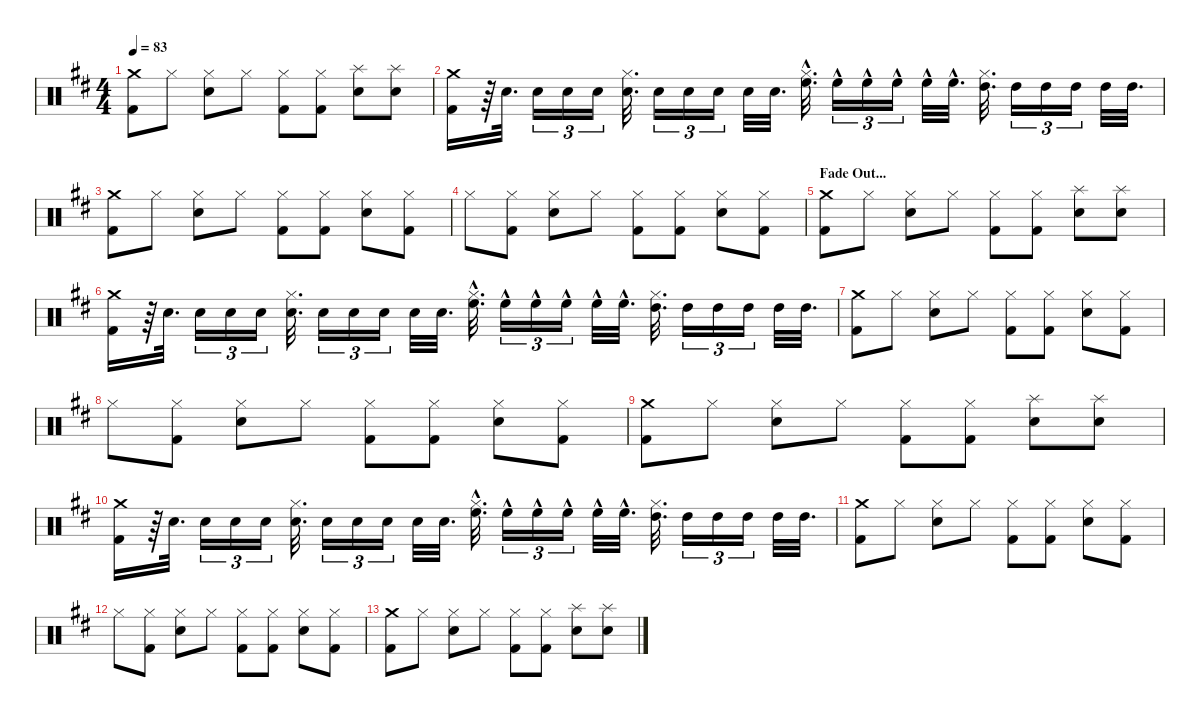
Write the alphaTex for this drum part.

\defaultSystemsLayout 4
\hideDynamics
\bracketExtendMode nobrackets
\singleTrackTrackNamePolicy hidden
\multiTrackTrackNamePolicy hidden
\otherSystemsTrackNameOrientation horizontal
\track ("Drumkit" "Drums") {defaultSystemsLayout 4 instrument percussion}
\staff {score}
\articulation defaults
\ts (4 4)
\tempo 83
\clef neutral
\ks d
("Kick (hit) 2"{acc forcenatural} "Crash medium (hit)"{acc forcenatural}).8{dy f beam Down} "Hi-Hat (closed)"{acc forcenatural}.8{beam Down} ("Snare (hit) 2"{acc forcenatural} "Hi-Hat (closed)"{acc forcenatural}).8{beam Down} "Hi-Hat (closed)"{acc forcenatural}.8{beam Down} ("Kick (hit) 2"{acc forcenatural} "Hi-Hat (closed)"{acc forcenatural}).8{beam Down} ("Kick (hit) 2"{acc forcenatural} "Hi-Hat (closed)"{acc forcenatural}).8{beam Down} ("Snare (hit) 2"{acc forcenatural} "Splash (hit)"{acc forcenatural}).8{beam Down} ("Snare (hit) 2"{acc forcenatural} "Splash (hit)"{acc forcenatural}).8{beam Down} |
("Kick (hit) 2"{acc forcenatural} "Crash medium (hit)"{acc forcenatural}).16{beam Down} r.64{beam Down} "Snare (hit) 2"{acc forcenatural}.32{d beam Down} "Snare (hit) 2"{acc forcenatural}.16{tu (3 2) beam Down} "Snare (hit) 2"{acc forcenatural}.16{tu (3 2) beam Down} "Snare (hit) 2"{acc forcenatural}.16{tu (3 2) beam Down} ("Snare (hit) 2"{acc forcenatural} "Hi-Hat (closed)"{acc forcenatural}).32{d beam Down} "Snare (hit) 2"{acc forcenatural}.16{tu (3 2) beam Down} "Snare (hit) 2"{acc forcenatural}.16{tu (3 2) beam Down} "Snare (hit) 2"{acc forcenatural}.16{tu (3 2) beam Down} "Snare (hit) 2"{acc forcenatural}.32{beam Down} "Snare (hit) 2"{acc forcenatural}.32{d beam Down} ("High Floor Tom (hit)"{hac acc forcenatural} "Hi-Hat (closed)"{hac acc forcenatural}).32{d beam Down} "High Floor Tom (hit)"{hac acc forcenatural}.16{tu (3 2) beam Down} "High Floor Tom (hit)"{hac acc forcenatural}.16{tu (3 2) beam Down} "High Floor Tom (hit)"{hac acc forcenatural}.16{tu (3 2) beam Down} "High Floor Tom (hit)"{hac acc forcenatural}.32{beam Down} "High Floor Tom (hit)"{hac acc forcenatural}.32{d beam Down} ("Hi-Hat (closed)"{acc forcenatural} "High Tom (hit)"{acc forcenatural}).32{d beam Down} "High Tom (hit)"{acc forcenatural}.16{tu (3 2) beam Down} "High Tom (hit)"{acc forcenatural}.16{tu (3 2) beam Down} "High Tom (hit)"{acc forcenatural}.16{tu (3 2) beam Down} "High Tom (hit)"{acc forcenatural}.32{beam Down} "High Tom (hit)"{acc forcenatural}.32{d beam Down} |
("Kick (hit) 2"{acc forcenatural} "Crash medium (hit)"{acc forcenatural}).8{beam Down} "Hi-Hat (closed)"{acc forcenatural}.8{beam Down} ("Snare (hit) 2"{acc forcenatural} "Hi-Hat (closed)"{acc forcenatural}).8{beam Down} "Hi-Hat (closed)"{acc forcenatural}.8{beam Down} ("Kick (hit) 2"{acc forcenatural} "Hi-Hat (closed)"{acc forcenatural}).8{beam Down} ("Kick (hit) 2"{acc forcenatural} "Hi-Hat (closed)"{acc forcenatural}).8{beam Down} ("Snare (hit) 2"{acc forcenatural} "Hi-Hat (closed)"{acc forcenatural}).8{beam Down} ("Kick (hit) 2"{acc forcenatural} "Hi-Hat (closed)"{acc forcenatural}).8{beam Down} |
"Hi-Hat (closed)"{acc forcenatural}.8{beam Down} ("Kick (hit) 2"{acc forcenatural} "Hi-Hat (closed)"{acc forcenatural}).8{beam Down} ("Snare (hit) 2"{acc forcenatural} "Hi-Hat (closed)"{acc forcenatural}).8{beam Down} "Hi-Hat (closed)"{acc forcenatural}.8{beam Down} ("Kick (hit) 2"{acc forcenatural} "Hi-Hat (closed)"{acc forcenatural}).8{beam Down} ("Kick (hit) 2"{acc forcenatural} "Hi-Hat (closed)"{acc forcenatural}).8{beam Down} ("Snare (hit) 2"{acc forcenatural} "Hi-Hat (closed)"{acc forcenatural}).8{beam Down} ("Kick (hit) 2"{acc forcenatural} "Hi-Hat (closed)"{acc forcenatural}).8{beam Down} |
\section ("" "Fade Out...")
("Kick (hit) 2"{acc forcenatural} "Crash medium (hit)"{acc forcenatural}).8{beam Down} "Hi-Hat (closed)"{acc forcenatural}.8{beam Down} ("Snare (hit) 2"{acc forcenatural} "Hi-Hat (closed)"{acc forcenatural}).8{beam Down} "Hi-Hat (closed)"{acc forcenatural}.8{beam Down} ("Kick (hit) 2"{acc forcenatural} "Hi-Hat (closed)"{acc forcenatural}).8{beam Down} ("Kick (hit) 2"{acc forcenatural} "Hi-Hat (closed)"{acc forcenatural}).8{beam Down} ("Snare (hit) 2"{acc forcenatural} "Splash (hit)"{acc forcenatural}).8{beam Down} ("Snare (hit) 2"{acc forcenatural} "Splash (hit)"{acc forcenatural}).8{beam Down} |
("Kick (hit) 2"{acc forcenatural} "Crash medium (hit)"{acc forcenatural}).16{beam Down} r.64{beam Down} "Snare (hit) 2"{acc forcenatural}.32{d beam Down} "Snare (hit) 2"{acc forcenatural}.16{tu (3 2) beam Down} "Snare (hit) 2"{acc forcenatural}.16{tu (3 2) beam Down} "Snare (hit) 2"{acc forcenatural}.16{tu (3 2) beam Down} ("Snare (hit) 2"{acc forcenatural} "Hi-Hat (closed)"{acc forcenatural}).32{d beam Down} "Snare (hit) 2"{acc forcenatural}.16{tu (3 2) beam Down} "Snare (hit) 2"{acc forcenatural}.16{tu (3 2) beam Down} "Snare (hit) 2"{acc forcenatural}.16{tu (3 2) beam Down} "Snare (hit) 2"{acc forcenatural}.32{beam Down} "Snare (hit) 2"{acc forcenatural}.32{d beam Down} ("High Floor Tom (hit)"{hac acc forcenatural} "Hi-Hat (closed)"{hac acc forcenatural}).32{d beam Down} "High Floor Tom (hit)"{hac acc forcenatural}.16{tu (3 2) beam Down} "High Floor Tom (hit)"{hac acc forcenatural}.16{tu (3 2) beam Down} "High Floor Tom (hit)"{hac acc forcenatural}.16{tu (3 2) beam Down} "High Floor Tom (hit)"{hac acc forcenatural}.32{beam Down} "High Floor Tom (hit)"{hac acc forcenatural}.32{d beam Down} ("Hi-Hat (closed)"{acc forcenatural} "High Tom (hit)"{acc forcenatural}).32{d beam Down} "High Tom (hit)"{acc forcenatural}.16{tu (3 2) beam Down} "High Tom (hit)"{acc forcenatural}.16{tu (3 2) beam Down} "High Tom (hit)"{acc forcenatural}.16{tu (3 2) beam Down} "High Tom (hit)"{acc forcenatural}.32{beam Down} "High Tom (hit)"{acc forcenatural}.32{d beam Down} |
("Kick (hit) 2"{acc forcenatural} "Crash medium (hit)"{acc forcenatural}).8{beam Down} "Hi-Hat (closed)"{acc forcenatural}.8{beam Down} ("Snare (hit) 2"{acc forcenatural} "Hi-Hat (closed)"{acc forcenatural}).8{beam Down} "Hi-Hat (closed)"{acc forcenatural}.8{beam Down} ("Kick (hit) 2"{acc forcenatural} "Hi-Hat (closed)"{acc forcenatural}).8{beam Down} ("Kick (hit) 2"{acc forcenatural} "Hi-Hat (closed)"{acc forcenatural}).8{beam Down} ("Snare (hit) 2"{acc forcenatural} "Hi-Hat (closed)"{acc forcenatural}).8{beam Down} ("Kick (hit) 2"{acc forcenatural} "Hi-Hat (closed)"{acc forcenatural}).8{beam Down} |
"Hi-Hat (closed)"{acc forcenatural}.8{beam Down} ("Kick (hit) 2"{acc forcenatural} "Hi-Hat (closed)"{acc forcenatural}).8{beam Down} ("Snare (hit) 2"{acc forcenatural} "Hi-Hat (closed)"{acc forcenatural}).8{beam Down} "Hi-Hat (closed)"{acc forcenatural}.8{beam Down} ("Kick (hit) 2"{acc forcenatural} "Hi-Hat (closed)"{acc forcenatural}).8{beam Down} ("Kick (hit) 2"{acc forcenatural} "Hi-Hat (closed)"{acc forcenatural}).8{beam Down} ("Snare (hit) 2"{acc forcenatural} "Hi-Hat (closed)"{acc forcenatural}).8{beam Down} ("Kick (hit) 2"{acc forcenatural} "Hi-Hat (closed)"{acc forcenatural}).8{beam Down} |
("Kick (hit) 2"{acc forcenatural} "Crash medium (hit)"{acc forcenatural}).8{beam Down} "Hi-Hat (closed)"{acc forcenatural}.8{beam Down} ("Snare (hit) 2"{acc forcenatural} "Hi-Hat (closed)"{acc forcenatural}).8{beam Down} "Hi-Hat (closed)"{acc forcenatural}.8{beam Down} ("Kick (hit) 2"{acc forcenatural} "Hi-Hat (closed)"{acc forcenatural}).8{beam Down} ("Kick (hit) 2"{acc forcenatural} "Hi-Hat (closed)"{acc forcenatural}).8{beam Down} ("Snare (hit) 2"{acc forcenatural} "Splash (hit)"{acc forcenatural}).8{beam Down} ("Snare (hit) 2"{acc forcenatural} "Splash (hit)"{acc forcenatural}).8{beam Down} |
("Kick (hit) 2"{acc forcenatural} "Crash medium (hit)"{acc forcenatural}).16{beam Down} r.64{beam Down} "Snare (hit) 2"{acc forcenatural}.32{d beam Down} "Snare (hit) 2"{acc forcenatural}.16{tu (3 2) beam Down} "Snare (hit) 2"{acc forcenatural}.16{tu (3 2) beam Down} "Snare (hit) 2"{acc forcenatural}.16{tu (3 2) beam Down} ("Snare (hit) 2"{acc forcenatural} "Hi-Hat (closed)"{acc forcenatural}).32{d beam Down} "Snare (hit) 2"{acc forcenatural}.16{tu (3 2) beam Down} "Snare (hit) 2"{acc forcenatural}.16{tu (3 2) beam Down} "Snare (hit) 2"{acc forcenatural}.16{tu (3 2) beam Down} "Snare (hit) 2"{acc forcenatural}.32{beam Down} "Snare (hit) 2"{acc forcenatural}.32{d beam Down} ("High Floor Tom (hit)"{hac acc forcenatural} "Hi-Hat (closed)"{hac acc forcenatural}).32{d beam Down} "High Floor Tom (hit)"{hac acc forcenatural}.16{tu (3 2) beam Down} "High Floor Tom (hit)"{hac acc forcenatural}.16{tu (3 2) beam Down} "High Floor Tom (hit)"{hac acc forcenatural}.16{tu (3 2) beam Down} "High Floor Tom (hit)"{hac acc forcenatural}.32{beam Down} "High Floor Tom (hit)"{hac acc forcenatural}.32{d beam Down} ("Hi-Hat (closed)"{acc forcenatural} "High Tom (hit)"{acc forcenatural}).32{d beam Down} "High Tom (hit)"{acc forcenatural}.16{tu (3 2) beam Down} "High Tom (hit)"{acc forcenatural}.16{tu (3 2) beam Down} "High Tom (hit)"{acc forcenatural}.16{tu (3 2) beam Down} "High Tom (hit)"{acc forcenatural}.32{beam Down} "High Tom (hit)"{acc forcenatural}.32{d beam Down} |
("Kick (hit) 2"{acc forcenatural} "Crash medium (hit)"{acc forcenatural}).8{beam Down} "Hi-Hat (closed)"{acc forcenatural}.8{beam Down} ("Snare (hit) 2"{acc forcenatural} "Hi-Hat (closed)"{acc forcenatural}).8{beam Down} "Hi-Hat (closed)"{acc forcenatural}.8{beam Down} ("Kick (hit) 2"{acc forcenatural} "Hi-Hat (closed)"{acc forcenatural}).8{beam Down} ("Kick (hit) 2"{acc forcenatural} "Hi-Hat (closed)"{acc forcenatural}).8{beam Down} ("Snare (hit) 2"{acc forcenatural} "Hi-Hat (closed)"{acc forcenatural}).8{beam Down} ("Kick (hit) 2"{acc forcenatural} "Hi-Hat (closed)"{acc forcenatural}).8{beam Down} |
"Hi-Hat (closed)"{acc forcenatural}.8{beam Down} ("Kick (hit) 2"{acc forcenatural} "Hi-Hat (closed)"{acc forcenatural}).8{beam Down} ("Snare (hit) 2"{acc forcenatural} "Hi-Hat (closed)"{acc forcenatural}).8{beam Down} "Hi-Hat (closed)"{acc forcenatural}.8{beam Down} ("Kick (hit) 2"{acc forcenatural} "Hi-Hat (closed)"{acc forcenatural}).8{beam Down} ("Kick (hit) 2"{acc forcenatural} "Hi-Hat (closed)"{acc forcenatural}).8{beam Down} ("Snare (hit) 2"{acc forcenatural} "Hi-Hat (closed)"{acc forcenatural}).8{beam Down} ("Kick (hit) 2"{acc forcenatural} "Hi-Hat (closed)"{acc forcenatural}).8{beam Down} |
("Kick (hit) 2"{acc forcenatural} "Crash medium (hit)"{acc forcenatural}).8{beam Down} "Hi-Hat (closed)"{acc forcenatural}.8{beam Down} ("Snare (hit) 2"{acc forcenatural} "Hi-Hat (closed)"{acc forcenatural}).8{beam Down} "Hi-Hat (closed)"{acc forcenatural}.8{beam Down} ("Kick (hit) 2"{acc forcenatural} "Hi-Hat (closed)"{acc forcenatural}).8{beam Down} ("Kick (hit) 2"{acc forcenatural} "Hi-Hat (closed)"{acc forcenatural}).8{beam Down} ("Snare (hit) 2"{acc forcenatural} "Splash (hit)"{acc forcenatural}).8{beam Down} ("Snare (hit) 2"{acc forcenatural} "Splash (hit)"{acc forcenatural}).8{beam Down}
